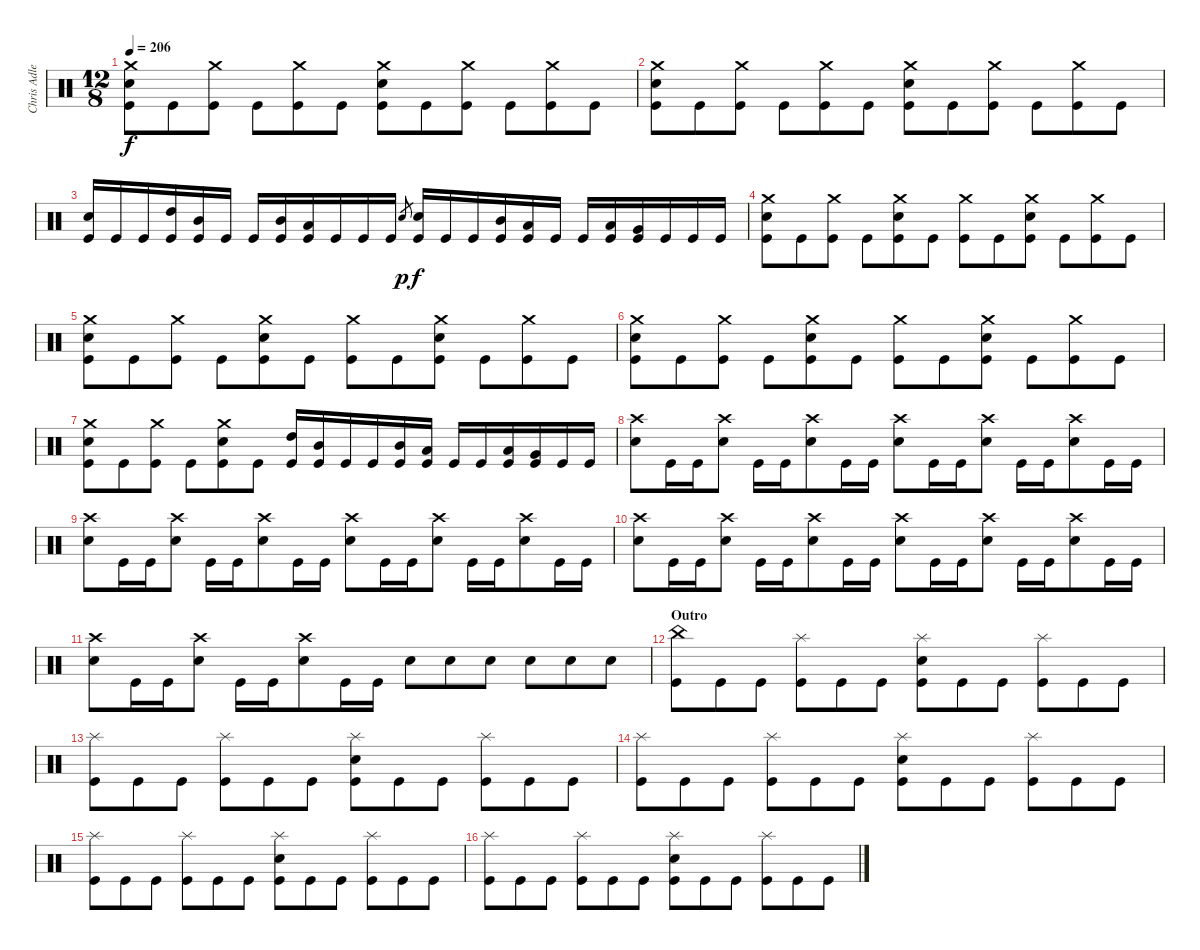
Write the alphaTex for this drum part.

\track ("Chris Adler" "Chris Adle") {instrument percussion}
\staff {score}
\articulation defaults
\ts (12 8)
\tempo 206
\clef neutral
\ks c
("Snare (hit) 2" "Kick (hit)" "Crash medium (hit)").8{dy f} "Kick (hit)".8 ("Kick (hit)" "Crash medium (hit)").8 "Kick (hit)".8 ("Kick (hit)" "Crash medium (hit)").8 "Kick (hit)".8 ("Snare (hit) 2" "Kick (hit)" "Crash medium (hit)").8 "Kick (hit)".8 ("Kick (hit)" "Crash medium (hit)").8 "Kick (hit)".8 ("Kick (hit)" "Crash medium (hit)").8 "Kick (hit)".8 |
("Snare (hit) 2" "Kick (hit)" "Crash medium (hit)").8 "Kick (hit)".8 ("Kick (hit)" "Crash medium (hit)").8 "Kick (hit)".8 ("Kick (hit)" "Crash medium (hit)").8 "Kick (hit)".8 ("Snare (hit) 2" "Kick (hit)" "Crash medium (hit)").8 "Kick (hit)".8 ("Kick (hit)" "Crash medium (hit)").8 "Kick (hit)".8 ("Kick (hit)" "Crash medium (hit)").8 "Kick (hit)".8 |
("Snare (hit) 2" "Kick (hit)").16 "Kick (hit)".16 "Kick (hit)".16 ("Kick (hit)" "High Tom (hit)").16 ("Kick (hit)" "Mid Tom (hit)").16 "Kick (hit)".16 "Kick (hit)".16 ("Kick (hit)" "Mid Tom (hit)").16 ("Kick (hit)" "Low Tom (hit)").16 "Kick (hit)".16 "Kick (hit)".16 "Kick (hit)".16 "Snare (hit)".8{gr dy p} ("Snare (hit) 2" "Kick (hit)").16{dy f} "Kick (hit)".16 "Kick (hit)".16 ("Kick (hit)" "Mid Tom (hit)").16 ("Kick (hit)" "Low Tom (hit)").16 "Kick (hit)".16 "Kick (hit)".16 ("Kick (hit)" "Low Tom (hit)").16 ("Kick (hit)" "Very Low Tom (hit)").16 "Kick (hit)".16 "Kick (hit)".16 "Kick (hit)".16 |
("Snare (hit) 2" "Kick (hit)" "Crash medium (hit)").8 "Kick (hit)".8 ("Kick (hit)" "Crash medium (hit)").8 "Kick (hit)".8 ("Snare (hit) 2" "Kick (hit)" "Crash medium (hit)").8 "Kick (hit)".8 ("Kick (hit)" "Crash medium (hit)").8 "Kick (hit)".8 ("Snare (hit) 2" "Kick (hit)" "Crash medium (hit)").8 "Kick (hit)".8 ("Kick (hit)" "Crash medium (hit)").8 "Kick (hit)".8 |
("Snare (hit) 2" "Kick (hit)" "Crash medium (hit)").8 "Kick (hit)".8 ("Kick (hit)" "Crash medium (hit)").8 "Kick (hit)".8 ("Snare (hit) 2" "Kick (hit)" "Crash medium (hit)").8 "Kick (hit)".8 ("Kick (hit)" "Crash medium (hit)").8 "Kick (hit)".8 ("Snare (hit) 2" "Kick (hit)" "Crash medium (hit)").8 "Kick (hit)".8 ("Kick (hit)" "Crash medium (hit)").8 "Kick (hit)".8 |
("Snare (hit) 2" "Kick (hit)" "Crash medium (hit)").8 "Kick (hit)".8 ("Kick (hit)" "Crash medium (hit)").8 "Kick (hit)".8 ("Snare (hit) 2" "Kick (hit)" "Crash medium (hit)").8 "Kick (hit)".8 ("Kick (hit)" "Crash medium (hit)").8 "Kick (hit)".8 ("Snare (hit) 2" "Kick (hit)" "Crash medium (hit)").8 "Kick (hit)".8 ("Kick (hit)" "Crash medium (hit)").8 "Kick (hit)".8 |
("Snare (hit) 2" "Kick (hit)" "Crash medium (hit)").8 "Kick (hit)".8 ("Kick (hit)" "Crash medium (hit)").8 "Kick (hit)".8 ("Snare (hit) 2" "Kick (hit)" "Crash medium (hit)").8 "Kick (hit)".8 ("Kick (hit)" "High Tom (hit)").16 ("Kick (hit)" "Mid Tom (hit)").16 "Kick (hit)".16 "Kick (hit)".16 ("Kick (hit)" "Mid Tom (hit)").16 ("Kick (hit)" "Low Tom (hit)").16 "Kick (hit)".16 "Kick (hit)".16 ("Kick (hit)" "Low Tom (hit)").16 ("Kick (hit)" "Very Low Tom (hit)").16 "Kick (hit)".16 "Kick (hit)".16 |
("Crash high (hit)" "Snare (hit) 2").8 "Kick (hit)".16 "Kick (hit)".16 ("Crash high (hit)" "Snare (hit) 2").8 "Kick (hit)".16 "Kick (hit)".16 ("Crash high (hit)" "Snare (hit) 2").8 "Kick (hit)".16 "Kick (hit)".16 ("Crash high (hit)" "Snare (hit) 2").8 "Kick (hit)".16 "Kick (hit)".16 ("Crash high (hit)" "Snare (hit) 2").8 "Kick (hit)".16 "Kick (hit)".16 ("Crash high (hit)" "Snare (hit) 2").8 "Kick (hit)".16 "Kick (hit)".16 |
("Crash high (hit)" "Snare (hit) 2").8 "Kick (hit)".16 "Kick (hit)".16 ("Crash high (hit)" "Snare (hit) 2").8 "Kick (hit)".16 "Kick (hit)".16 ("Crash high (hit)" "Snare (hit) 2").8 "Kick (hit)".16 "Kick (hit)".16 ("Crash high (hit)" "Snare (hit) 2").8 "Kick (hit)".16 "Kick (hit)".16 ("Crash high (hit)" "Snare (hit) 2").8 "Kick (hit)".16 "Kick (hit)".16 ("Crash high (hit)" "Snare (hit) 2").8 "Kick (hit)".16 "Kick (hit)".16 |
("Crash high (hit)" "Snare (hit) 2").8 "Kick (hit)".16 "Kick (hit)".16 ("Crash high (hit)" "Snare (hit) 2").8 "Kick (hit)".16 "Kick (hit)".16 ("Crash high (hit)" "Snare (hit) 2").8 "Kick (hit)".16 "Kick (hit)".16 ("Crash high (hit)" "Snare (hit) 2").8 "Kick (hit)".16 "Kick (hit)".16 ("Crash high (hit)" "Snare (hit) 2").8 "Kick (hit)".16 "Kick (hit)".16 ("Crash high (hit)" "Snare (hit) 2").8 "Kick (hit)".16 "Kick (hit)".16 |
("Crash high (hit)" "Snare (hit) 2").8 "Kick (hit)".16 "Kick (hit)".16 ("Crash high (hit)" "Snare (hit) 2").8 "Kick (hit)".16 "Kick (hit)".16 ("Crash high (hit)" "Snare (hit) 2").8 "Kick (hit)".16 "Kick (hit)".16 "Snare (hit) 2".8 "Snare (hit) 2".8 "Snare (hit) 2".8 "Snare (hit) 2".8 "Snare (hit) 2".8 "Snare (hit) 2".8 |
\section ("" "Outro")
("Kick (hit)" "China (hit)").8 "Kick (hit)".8 "Kick (hit)".8 ("Kick (hit)" "Splash (hit)").8 "Kick (hit)".8 "Kick (hit)".8 ("Snare (hit) 2" "Kick (hit)" "Splash (hit)").8 "Kick (hit)".8 "Kick (hit)".8 ("Kick (hit)" "Splash (hit)").8 "Kick (hit)".8 "Kick (hit)".8 |
("Kick (hit)" "Splash (hit)").8 "Kick (hit)".8 "Kick (hit)".8 ("Kick (hit)" "Splash (hit)").8 "Kick (hit)".8 "Kick (hit)".8 ("Snare (hit) 2" "Kick (hit)" "Splash (hit)").8 "Kick (hit)".8 "Kick (hit)".8 ("Kick (hit)" "Splash (hit)").8 "Kick (hit)".8 "Kick (hit)".8 |
("Kick (hit)" "Splash (hit)").8 "Kick (hit)".8 "Kick (hit)".8 ("Kick (hit)" "Splash (hit)").8 "Kick (hit)".8 "Kick (hit)".8 ("Snare (hit) 2" "Kick (hit)" "Splash (hit)").8 "Kick (hit)".8 "Kick (hit)".8 ("Kick (hit)" "Splash (hit)").8 "Kick (hit)".8 "Kick (hit)".8 |
("Kick (hit)" "Splash (hit)").8 "Kick (hit)".8 "Kick (hit)".8 ("Kick (hit)" "Splash (hit)").8 "Kick (hit)".8 "Kick (hit)".8 ("Snare (hit) 2" "Kick (hit)" "Splash (hit)").8 "Kick (hit)".8 "Kick (hit)".8 ("Kick (hit)" "Splash (hit)").8 "Kick (hit)".8 "Kick (hit)".8 |
("Kick (hit)" "Splash (hit)").8 "Kick (hit)".8 "Kick (hit)".8 ("Kick (hit)" "Splash (hit)").8 "Kick (hit)".8 "Kick (hit)".8 ("Snare (hit) 2" "Kick (hit)" "Splash (hit)").8 "Kick (hit)".8 "Kick (hit)".8 ("Kick (hit)" "Splash (hit)").8 "Kick (hit)".8 "Kick (hit)".8
